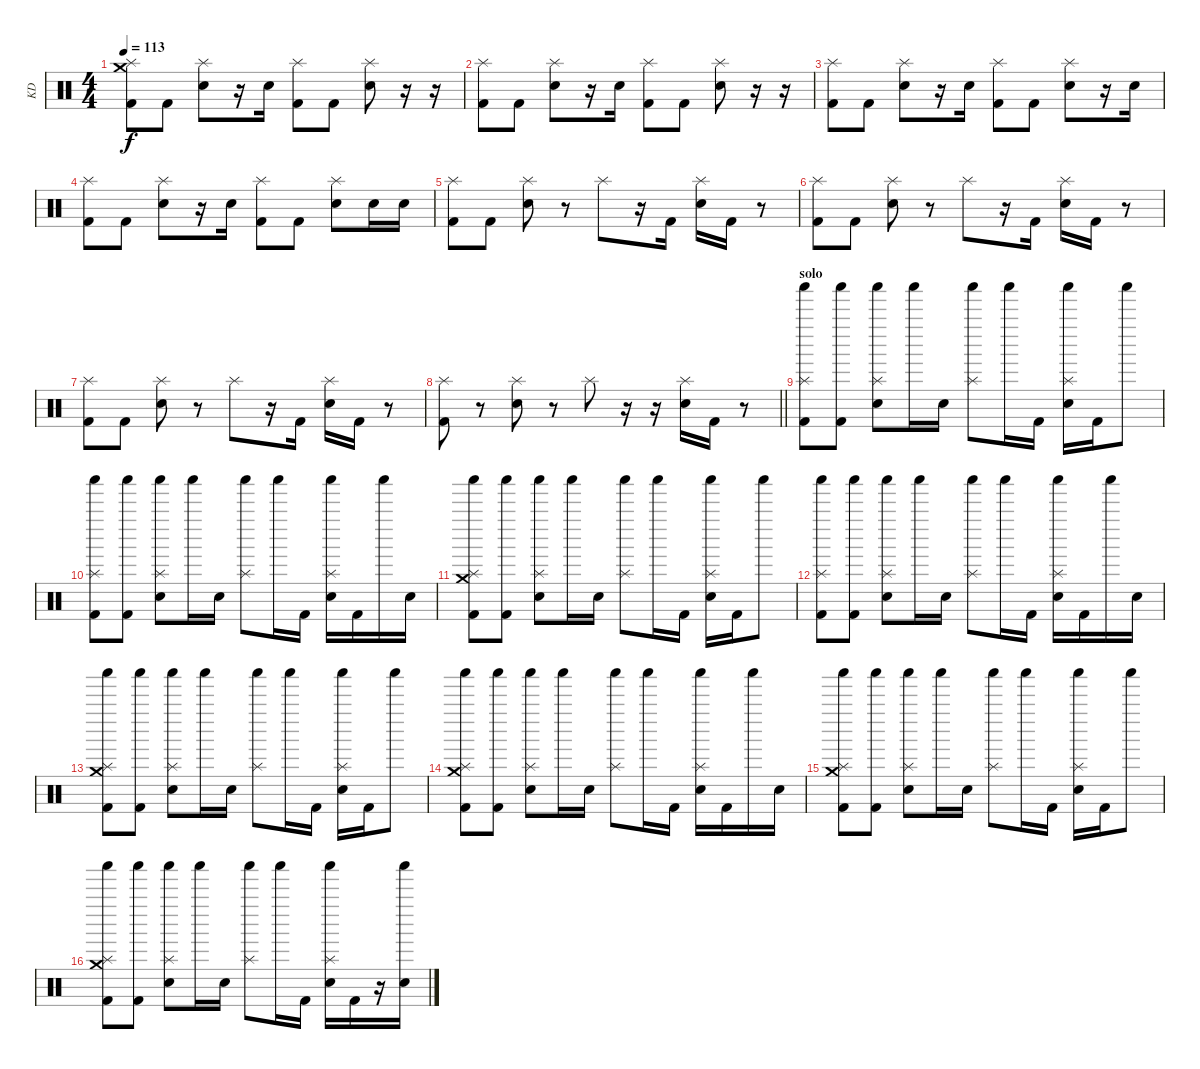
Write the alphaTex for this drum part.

\track ("KD" "KD") {instrument percussion}
\staff {score}
\articulation defaults
\ts (4 4)
\tempo 113
\clef neutral
\ks c
("Kick (hit) 2" "Crash medium (hit)" "Splash (hit)").8{dy f} "Kick (hit) 2".8 ("Electric Snare (hit)" "Splash (hit)").8 r.16 "Electric Snare (hit)".16 ("Kick (hit) 2" "Splash (hit)").8 "Kick (hit) 2".8 ("Electric Snare (hit)" "Splash (hit)").8 r.16 r.16 |
("Kick (hit) 2" "Splash (hit)").8 "Kick (hit) 2".8 ("Electric Snare (hit)" "Splash (hit)").8 r.16 "Electric Snare (hit)".16 ("Kick (hit) 2" "Splash (hit)").8 "Kick (hit) 2".8 ("Electric Snare (hit)" "Splash (hit)").8 r.16 r.16 |
("Kick (hit) 2" "Splash (hit)").8 "Kick (hit) 2".8 ("Electric Snare (hit)" "Splash (hit)").8 r.16 "Electric Snare (hit)".16 ("Kick (hit) 2" "Splash (hit)").8 "Kick (hit) 2".8 ("Electric Snare (hit)" "Splash (hit)").8 r.16 "Electric Snare (hit)".16 |
("Kick (hit) 2" "Splash (hit)").8 "Kick (hit) 2".8 ("Electric Snare (hit)" "Splash (hit)").8 r.16 "Electric Snare (hit)".16 ("Kick (hit) 2" "Splash (hit)").8 "Kick (hit) 2".8 ("Electric Snare (hit)" "Splash (hit)").8 "Electric Snare (hit)".16 "Electric Snare (hit)".16 |
("Kick (hit) 2" "Splash (hit)").8 "Kick (hit) 2".8 ("Electric Snare (hit)" "Splash (hit)").8 r.8 "Splash (hit)".8 r.16 "Kick (hit) 2".16 ("Electric Snare (hit)" "Splash (hit)").16 "Kick (hit) 2".16 r.8 |
("Kick (hit) 2" "Splash (hit)").8 "Kick (hit) 2".8 ("Electric Snare (hit)" "Splash (hit)").8 r.8 "Splash (hit)".8 r.16 "Kick (hit) 2".16 ("Electric Snare (hit)" "Splash (hit)").16 "Kick (hit) 2".16 r.8 |
("Kick (hit) 2" "Splash (hit)").8 "Kick (hit) 2".8 ("Electric Snare (hit)" "Splash (hit)").8 r.8 "Splash (hit)".8 r.16 "Kick (hit) 2".16 ("Electric Snare (hit)" "Splash (hit)").16 "Kick (hit) 2".16 r.8 |
\barLineRight lightlight
("Kick (hit) 2" "Splash (hit)").8 r.8 ("Electric Snare (hit)" "Splash (hit)").8 r.8 "Splash (hit)".8 r.16 r.16 ("Electric Snare (hit)" "Splash (hit)").16 "Kick (hit) 2".16 r.8 |
\section ("" "solo")
("Kick (hit) 2" "Splash (hit)" "Shaker (hit)").8 ("Kick (hit) 2" "Shaker (hit)").8 ("Electric Snare (hit)" "Splash (hit)" "Shaker (hit)").8 "Shaker (hit)".16 "Electric Snare (hit)".16 ("Splash (hit)" "Shaker (hit)").8 "Shaker (hit)".16 "Kick (hit) 2".16 ("Electric Snare (hit)" "Splash (hit)" "Shaker (hit)").16 "Kick (hit) 2".16 "Shaker (hit)".8 |
("Kick (hit) 2" "Splash (hit)" "Shaker (hit)").8 ("Kick (hit) 2" "Shaker (hit)").8 ("Electric Snare (hit)" "Splash (hit)" "Shaker (hit)").8 "Shaker (hit)".16 "Electric Snare (hit)".16 ("Splash (hit)" "Shaker (hit)").8 "Shaker (hit)".16 "Kick (hit) 2".16 ("Electric Snare (hit)" "Splash (hit)" "Shaker (hit)").16 "Kick (hit) 2".16 "Shaker (hit)".16 "Electric Snare (hit)".16 |
("Crash medium (hit)" "Kick (hit) 2" "Splash (hit)" "Shaker (hit)").8 ("Kick (hit) 2" "Shaker (hit)").8 ("Electric Snare (hit)" "Splash (hit)" "Shaker (hit)").8 "Shaker (hit)".16 "Electric Snare (hit)".16 ("Splash (hit)" "Shaker (hit)").8 "Shaker (hit)".16 "Kick (hit) 2".16 ("Electric Snare (hit)" "Splash (hit)" "Shaker (hit)").16 "Kick (hit) 2".16 "Shaker (hit)".8 |
("Kick (hit) 2" "Splash (hit)" "Shaker (hit)").8 ("Kick (hit) 2" "Shaker (hit)").8 ("Electric Snare (hit)" "Splash (hit)" "Shaker (hit)").8 "Shaker (hit)".16 "Electric Snare (hit)".16 ("Splash (hit)" "Shaker (hit)").8 "Shaker (hit)".16 "Kick (hit) 2".16 ("Electric Snare (hit)" "Splash (hit)" "Shaker (hit)").16 "Kick (hit) 2".16 "Shaker (hit)".16 "Electric Snare (hit)".16 |
("Crash medium (hit)" "Kick (hit) 2" "Splash (hit)" "Shaker (hit)").8 ("Kick (hit) 2" "Shaker (hit)").8 ("Electric Snare (hit)" "Splash (hit)" "Shaker (hit)").8 "Shaker (hit)".16 "Electric Snare (hit)".16 ("Splash (hit)" "Shaker (hit)").8 "Shaker (hit)".16 "Kick (hit) 2".16 ("Electric Snare (hit)" "Splash (hit)" "Shaker (hit)").16 "Kick (hit) 2".16 "Shaker (hit)".8 |
("Crash medium (hit)" "Kick (hit) 2" "Splash (hit)" "Shaker (hit)").8 ("Kick (hit) 2" "Shaker (hit)").8 ("Electric Snare (hit)" "Splash (hit)" "Shaker (hit)").8 "Shaker (hit)".16 "Electric Snare (hit)".16 ("Splash (hit)" "Shaker (hit)").8 "Shaker (hit)".16 "Kick (hit) 2".16 ("Electric Snare (hit)" "Splash (hit)" "Shaker (hit)").16 "Kick (hit) 2".16 "Shaker (hit)".16 "Electric Snare (hit)".16 |
("Crash medium (hit)" "Kick (hit) 2" "Splash (hit)" "Shaker (hit)").8 ("Kick (hit) 2" "Shaker (hit)").8 ("Electric Snare (hit)" "Splash (hit)" "Shaker (hit)").8 "Shaker (hit)".16 "Electric Snare (hit)".16 ("Splash (hit)" "Shaker (hit)").8 "Shaker (hit)".16 "Kick (hit) 2".16 ("Electric Snare (hit)" "Splash (hit)" "Shaker (hit)").16 "Kick (hit) 2".16 "Shaker (hit)".8 |
("Crash medium (hit)" "Kick (hit) 2" "Splash (hit)" "Shaker (hit)").8 ("Kick (hit) 2" "Shaker (hit)").8 ("Electric Snare (hit)" "Splash (hit)" "Shaker (hit)").8 "Shaker (hit)".16 "Electric Snare (hit)".16 ("Splash (hit)" "Shaker (hit)").8 "Shaker (hit)".16 "Kick (hit) 2".16 ("Electric Snare (hit)" "Splash (hit)" "Shaker (hit)").16 "Kick (hit) 2".16 r.16 ("Electric Snare (hit)" "Shaker (hit)").16
